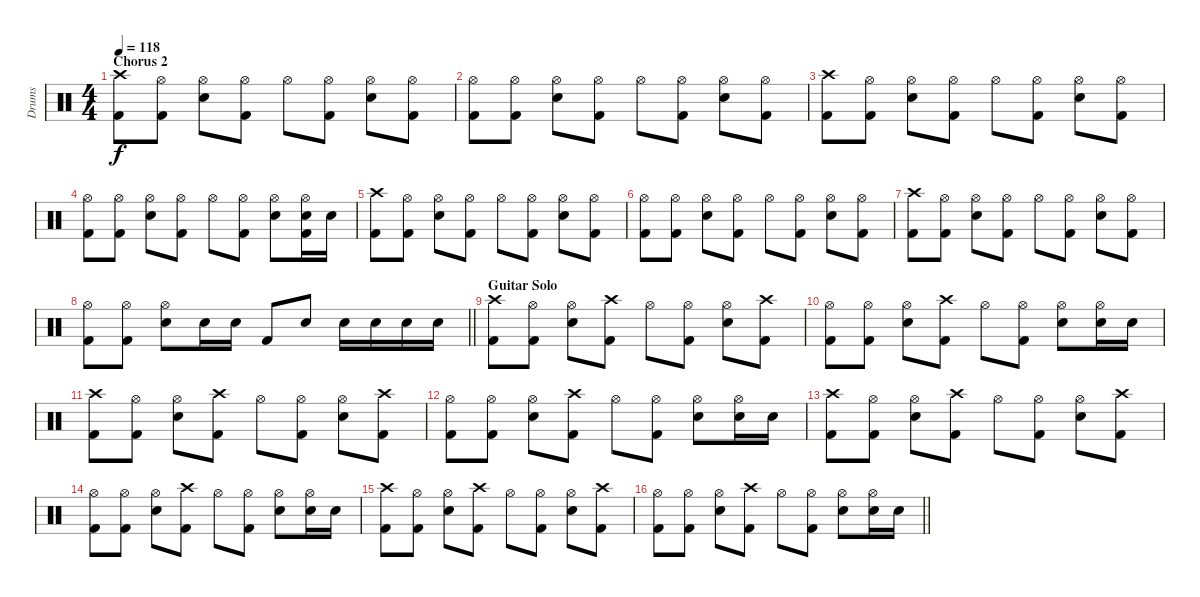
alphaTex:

\track ("Drums" "Drums") {instrument percussion}
\staff {score}
\articulation defaults
\ts (4 4)
\section ("" "Chorus 2")
\tempo 118
\clef neutral
\ks c
("Crash high (hit)" "Kick (hit) 2").8{dy f} ("Hi-Hat (open)" "Kick (hit) 2").8 ("Hi-Hat (open)" "Electric Snare (hit)").8 ("Hi-Hat (open)" "Kick (hit) 2").8 "Hi-Hat (open)".8 ("Hi-Hat (open)" "Kick (hit) 2").8 ("Hi-Hat (open)" "Electric Snare (hit)").8 ("Hi-Hat (open)" "Kick (hit) 2").8 |
("Hi-Hat (open)" "Kick (hit) 2").8 ("Hi-Hat (open)" "Kick (hit) 2").8 ("Hi-Hat (open)" "Electric Snare (hit)").8 ("Hi-Hat (open)" "Kick (hit) 2").8 "Hi-Hat (open)".8 ("Hi-Hat (open)" "Kick (hit) 2").8 ("Hi-Hat (open)" "Electric Snare (hit)").8 ("Hi-Hat (open)" "Kick (hit) 2").8 |
("Crash high (hit)" "Kick (hit) 2").8 ("Hi-Hat (open)" "Kick (hit) 2").8 ("Hi-Hat (open)" "Electric Snare (hit)").8 ("Hi-Hat (open)" "Kick (hit) 2").8 "Hi-Hat (open)".8 ("Hi-Hat (open)" "Kick (hit) 2").8 ("Hi-Hat (open)" "Electric Snare (hit)").8 ("Hi-Hat (open)" "Kick (hit) 2").8 |
("Hi-Hat (open)" "Kick (hit) 2").8 ("Hi-Hat (open)" "Kick (hit) 2").8 ("Hi-Hat (open)" "Electric Snare (hit)").8 ("Hi-Hat (open)" "Kick (hit) 2").8 "Hi-Hat (open)".8 ("Hi-Hat (open)" "Kick (hit) 2").8 ("Hi-Hat (open)" "Electric Snare (hit)").8 ("Hi-Hat (open)" "Electric Snare (hit)" "Kick (hit) 2").16 "Electric Snare (hit)".16 |
("Crash high (hit)" "Kick (hit) 2").8 ("Hi-Hat (open)" "Kick (hit) 2").8 ("Hi-Hat (open)" "Electric Snare (hit)").8 ("Hi-Hat (open)" "Kick (hit) 2").8 "Hi-Hat (open)".8 ("Hi-Hat (open)" "Kick (hit) 2").8 ("Hi-Hat (open)" "Electric Snare (hit)").8 ("Hi-Hat (open)" "Kick (hit) 2").8 |
("Hi-Hat (open)" "Kick (hit) 2").8 ("Hi-Hat (open)" "Kick (hit) 2").8 ("Hi-Hat (open)" "Electric Snare (hit)").8 ("Hi-Hat (open)" "Kick (hit) 2").8 "Hi-Hat (open)".8 ("Hi-Hat (open)" "Kick (hit) 2").8 ("Hi-Hat (open)" "Electric Snare (hit)").8 ("Hi-Hat (open)" "Kick (hit) 2").8 |
("Crash high (hit)" "Kick (hit) 2").8 ("Hi-Hat (open)" "Kick (hit) 2").8 ("Hi-Hat (open)" "Electric Snare (hit)").8 ("Hi-Hat (open)" "Kick (hit) 2").8 "Hi-Hat (open)".8 ("Hi-Hat (open)" "Kick (hit) 2").8 ("Hi-Hat (open)" "Electric Snare (hit)").8 ("Hi-Hat (open)" "Kick (hit) 2").8 |
\barLineRight lightlight
("Hi-Hat (open)" "Kick (hit) 2").8 ("Hi-Hat (open)" "Kick (hit) 2").8 ("Hi-Hat (open)" "Snare (hit) 2").8 "Snare (hit) 2".16 "Snare (hit) 2".16 "Kick (hit) 2".8 "Snare (hit) 2".8 "Snare (hit) 2".16 "Snare (hit) 2".16 "Snare (hit) 2".16 "Snare (hit) 2".16 |
\section ("" "Guitar Solo")
("Crash high (hit)" "Kick (hit) 2").8 ("Hi-Hat (open)" "Kick (hit) 2").8 ("Hi-Hat (open)" "Electric Snare (hit)").8 ("Crash high (hit)" "Kick (hit) 2").8 "Hi-Hat (open)".8 ("Hi-Hat (open)" "Kick (hit) 2").8 ("Hi-Hat (open)" "Electric Snare (hit)").8 ("Crash high (hit)" "Kick (hit) 2").8 |
("Hi-Hat (open)" "Kick (hit) 2").8 ("Hi-Hat (open)" "Kick (hit) 2").8 ("Hi-Hat (open)" "Electric Snare (hit)").8 ("Crash high (hit)" "Kick (hit) 2").8 "Hi-Hat (open)".8 ("Hi-Hat (open)" "Kick (hit) 2").8 ("Hi-Hat (open)" "Electric Snare (hit)").8 ("Hi-Hat (open)" "Electric Snare (hit)").16 "Electric Snare (hit)".16 |
("Crash high (hit)" "Kick (hit) 2").8 ("Hi-Hat (open)" "Kick (hit) 2").8 ("Hi-Hat (open)" "Electric Snare (hit)").8 ("Crash high (hit)" "Kick (hit) 2").8 "Hi-Hat (open)".8 ("Hi-Hat (open)" "Kick (hit) 2").8 ("Hi-Hat (open)" "Electric Snare (hit)").8 ("Crash high (hit)" "Kick (hit) 2").8 |
("Hi-Hat (open)" "Kick (hit) 2").8 ("Hi-Hat (open)" "Kick (hit) 2").8 ("Hi-Hat (open)" "Electric Snare (hit)").8 ("Crash high (hit)" "Kick (hit) 2").8 "Hi-Hat (open)".8 ("Hi-Hat (open)" "Kick (hit) 2").8 ("Hi-Hat (open)" "Electric Snare (hit)").8 ("Hi-Hat (open)" "Electric Snare (hit)").16 "Electric Snare (hit)".16 |
("Crash high (hit)" "Kick (hit) 2").8 ("Hi-Hat (open)" "Kick (hit) 2").8 ("Hi-Hat (open)" "Electric Snare (hit)").8 ("Crash high (hit)" "Kick (hit) 2").8 "Hi-Hat (open)".8 ("Hi-Hat (open)" "Kick (hit) 2").8 ("Hi-Hat (open)" "Electric Snare (hit)").8 ("Crash high (hit)" "Kick (hit) 2").8 |
("Hi-Hat (open)" "Kick (hit) 2").8 ("Hi-Hat (open)" "Kick (hit) 2").8 ("Hi-Hat (open)" "Electric Snare (hit)").8 ("Crash high (hit)" "Kick (hit) 2").8 "Hi-Hat (open)".8 ("Hi-Hat (open)" "Kick (hit) 2").8 ("Hi-Hat (open)" "Electric Snare (hit)").8 ("Hi-Hat (open)" "Electric Snare (hit)").16 "Electric Snare (hit)".16 |
("Crash high (hit)" "Kick (hit) 2").8 ("Hi-Hat (open)" "Kick (hit) 2").8 ("Hi-Hat (open)" "Electric Snare (hit)").8 ("Crash high (hit)" "Kick (hit) 2").8 "Hi-Hat (open)".8 ("Hi-Hat (open)" "Kick (hit) 2").8 ("Hi-Hat (open)" "Electric Snare (hit)").8 ("Crash high (hit)" "Kick (hit) 2").8 |
\barLineRight lightlight
("Hi-Hat (open)" "Kick (hit) 2").8 ("Hi-Hat (open)" "Kick (hit) 2").8 ("Hi-Hat (open)" "Electric Snare (hit)").8 ("Crash high (hit)" "Kick (hit) 2").8 "Hi-Hat (open)".8 ("Hi-Hat (open)" "Kick (hit) 2").8 ("Hi-Hat (open)" "Electric Snare (hit)").8 ("Hi-Hat (open)" "Electric Snare (hit)").16 "Electric Snare (hit)".16
